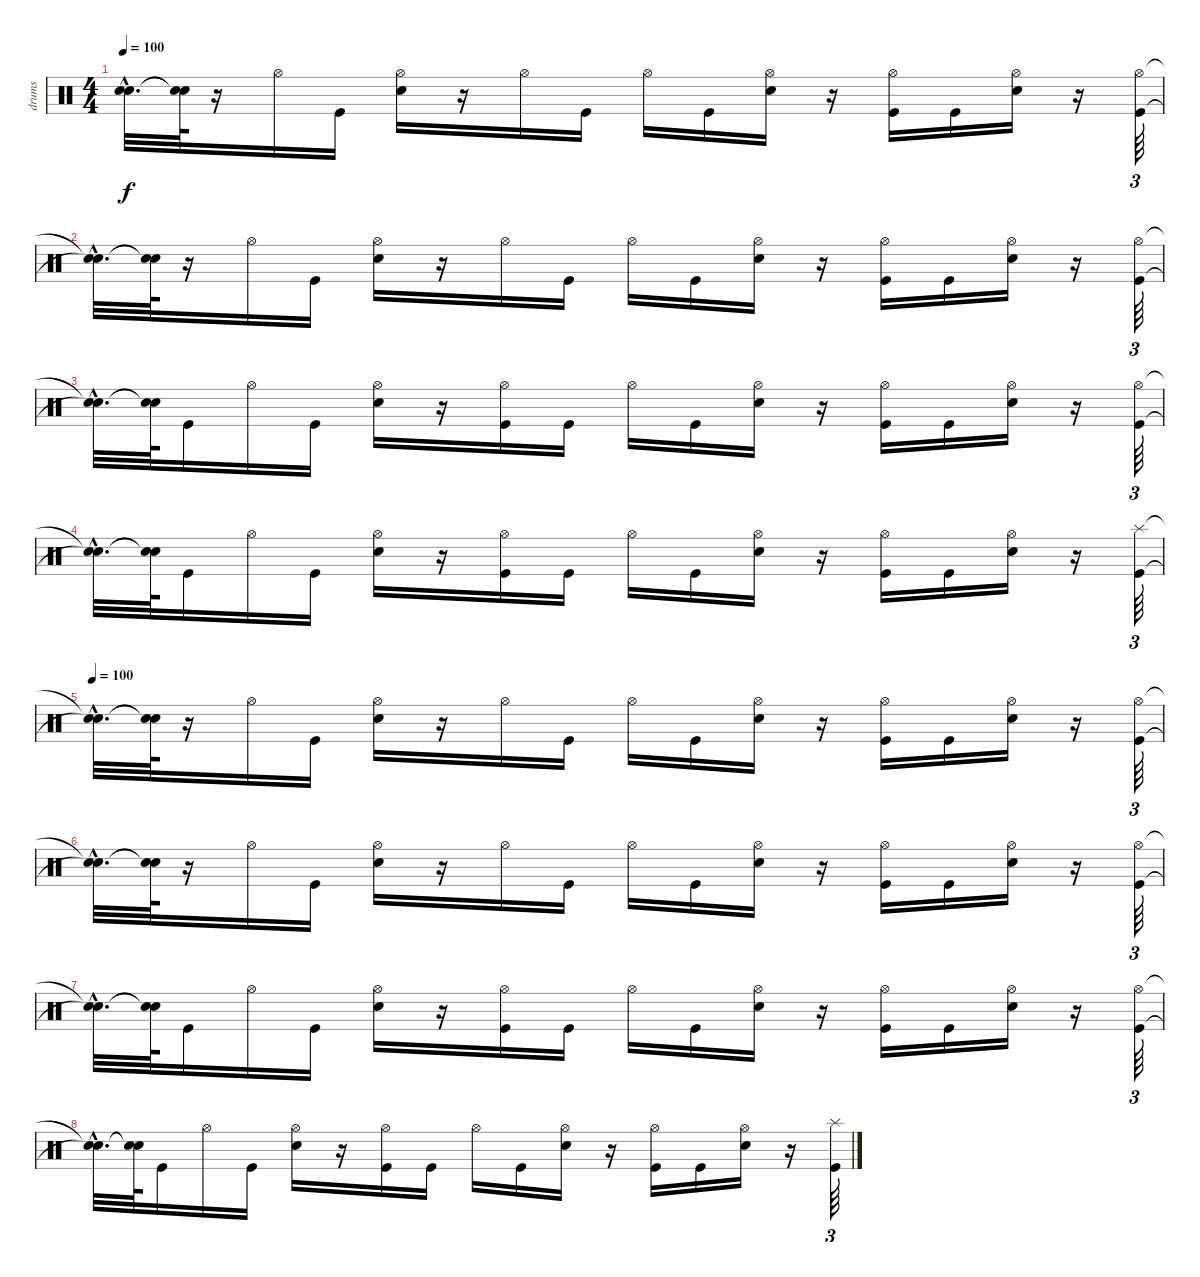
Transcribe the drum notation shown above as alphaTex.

\track ("drums" "drums") {instrument percussion}
\staff {score}
\articulation defaults
\ts (4 4)
\tempo 100
\clef neutral
\ks c
("Snare (hit)"{hac t} "Snare (hit)"{hac t}).32{d dy f} ("Snare (hit)"{t} "Snare (hit)"{t}).64 r.16 "Hi-Hat (open)".16 "Kick (hit)".16 ("Electric Snare (hit)" "Hi-Hat (open)").16 r.16 "Hi-Hat (open)".16 "Kick (hit)".16 "Hi-Hat (open)".16 "Kick (hit)".16 ("Hi-Hat (open)" "Electric Snare (hit)").16 r.16 ("Kick (hit)" "Hi-Hat (open)").16 "Kick (hit)".16 ("Hi-Hat (open)" "Electric Snare (hit)").16 r.16 ("Kick (hit)" "Hi-Hat (open)").64{tu (3 2)} |
("Snare (hit)"{hac t} "Snare (hit)"{hac t}).32{d} ("Snare (hit)"{t} "Snare (hit)"{t}).64 r.16 "Hi-Hat (open)".16 "Kick (hit)".16 ("Hi-Hat (open)" "Electric Snare (hit)").16 r.16 "Hi-Hat (open)".16 "Kick (hit)".16 "Hi-Hat (open)".16 "Kick (hit)".16 ("Hi-Hat (open)" "Electric Snare (hit)").16 r.16 ("Hi-Hat (open)" "Kick (hit)").16 "Kick (hit)".16 ("Hi-Hat (open)" "Electric Snare (hit)").16 r.16 ("Hi-Hat (open)" "Kick (hit)").64{tu (3 2)} |
("Snare (hit)"{hac t} "Snare (hit)"{hac t}).32{d} ("Snare (hit)"{t} "Snare (hit)"{t}).64 "Kick (hit)".16 "Hi-Hat (open)".16 "Kick (hit)".16 ("Electric Snare (hit)" "Hi-Hat (open)").16 r.16 ("Hi-Hat (open)" "Kick (hit)").16 "Kick (hit)".16 "Hi-Hat (open)".16 "Kick (hit)".16 ("Hi-Hat (open)" "Electric Snare (hit)").16 r.16 ("Kick (hit)" "Hi-Hat (open)").16 "Kick (hit)".16 ("Hi-Hat (open)" "Electric Snare (hit)").16 r.16 ("Kick (hit)" "Hi-Hat (open)").64{tu (3 2)} |
("Snare (hit)"{hac t} "Snare (hit)"{hac t}).32{d} ("Snare (hit)"{t} "Snare (hit)"{t}).64 "Kick (hit)".16 "Hi-Hat (open)".16 "Kick (hit)".16 ("Hi-Hat (open)" "Electric Snare (hit)").16 r.16 ("Hi-Hat (open)" "Kick (hit)").16 "Kick (hit)".16 "Hi-Hat (open)".16 "Kick (hit)".16 ("Hi-Hat (open)" "Electric Snare (hit)").16 r.16 ("Hi-Hat (open)" "Kick (hit)").16 "Kick (hit)".16 ("Hi-Hat (open)" "Electric Snare (hit)").16 r.16 ("Splash (hit)" "Kick (hit)").64{tu (3 2)} |
\tempo 100
("Snare (hit)"{hac t} "Snare (hit)"{hac t}).32{d} ("Snare (hit)"{t} "Snare (hit)"{t}).64 r.16 "Hi-Hat (open)".16 "Kick (hit)".16 ("Electric Snare (hit)" "Hi-Hat (open)").16 r.16 "Hi-Hat (open)".16 "Kick (hit)".16 "Hi-Hat (open)".16 "Kick (hit)".16 ("Hi-Hat (open)" "Electric Snare (hit)").16 r.16 ("Kick (hit)" "Hi-Hat (open)").16 "Kick (hit)".16 ("Hi-Hat (open)" "Electric Snare (hit)").16 r.16 ("Kick (hit)" "Hi-Hat (open)").64{tu (3 2)} |
("Snare (hit)"{hac t} "Snare (hit)"{hac t}).32{d} ("Snare (hit)"{t} "Snare (hit)"{t}).64 r.16 "Hi-Hat (open)".16 "Kick (hit)".16 ("Hi-Hat (open)" "Electric Snare (hit)").16 r.16 "Hi-Hat (open)".16 "Kick (hit)".16 "Hi-Hat (open)".16 "Kick (hit)".16 ("Hi-Hat (open)" "Electric Snare (hit)").16 r.16 ("Hi-Hat (open)" "Kick (hit)").16 "Kick (hit)".16 ("Hi-Hat (open)" "Electric Snare (hit)").16 r.16 ("Hi-Hat (open)" "Kick (hit)").64{tu (3 2)} |
("Snare (hit)"{hac t} "Snare (hit)"{hac t}).32{d} ("Snare (hit)"{t} "Snare (hit)"{t}).64 "Kick (hit)".16 "Hi-Hat (open)".16 "Kick (hit)".16 ("Electric Snare (hit)" "Hi-Hat (open)").16 r.16 ("Hi-Hat (open)" "Kick (hit)").16 "Kick (hit)".16 "Hi-Hat (open)".16 "Kick (hit)".16 ("Hi-Hat (open)" "Electric Snare (hit)").16 r.16 ("Kick (hit)" "Hi-Hat (open)").16 "Kick (hit)".16 ("Hi-Hat (open)" "Electric Snare (hit)").16 r.16 ("Kick (hit)" "Hi-Hat (open)").64{tu (3 2)} |
("Snare (hit)"{hac t} "Snare (hit)"{hac t}).32{d} ("Snare (hit)"{t} "Snare (hit)"{t}).64 "Kick (hit)".16 "Hi-Hat (open)".16 "Kick (hit)".16 ("Hi-Hat (open)" "Electric Snare (hit)").16 r.16 ("Hi-Hat (open)" "Kick (hit)").16 "Kick (hit)".16 "Hi-Hat (open)".16 "Kick (hit)".16 ("Hi-Hat (open)" "Electric Snare (hit)").16 r.16 ("Hi-Hat (open)" "Kick (hit)").16 "Kick (hit)".16 ("Hi-Hat (open)" "Electric Snare (hit)").16 r.16 ("Splash (hit)" "Kick (hit)").64{tu (3 2)}
